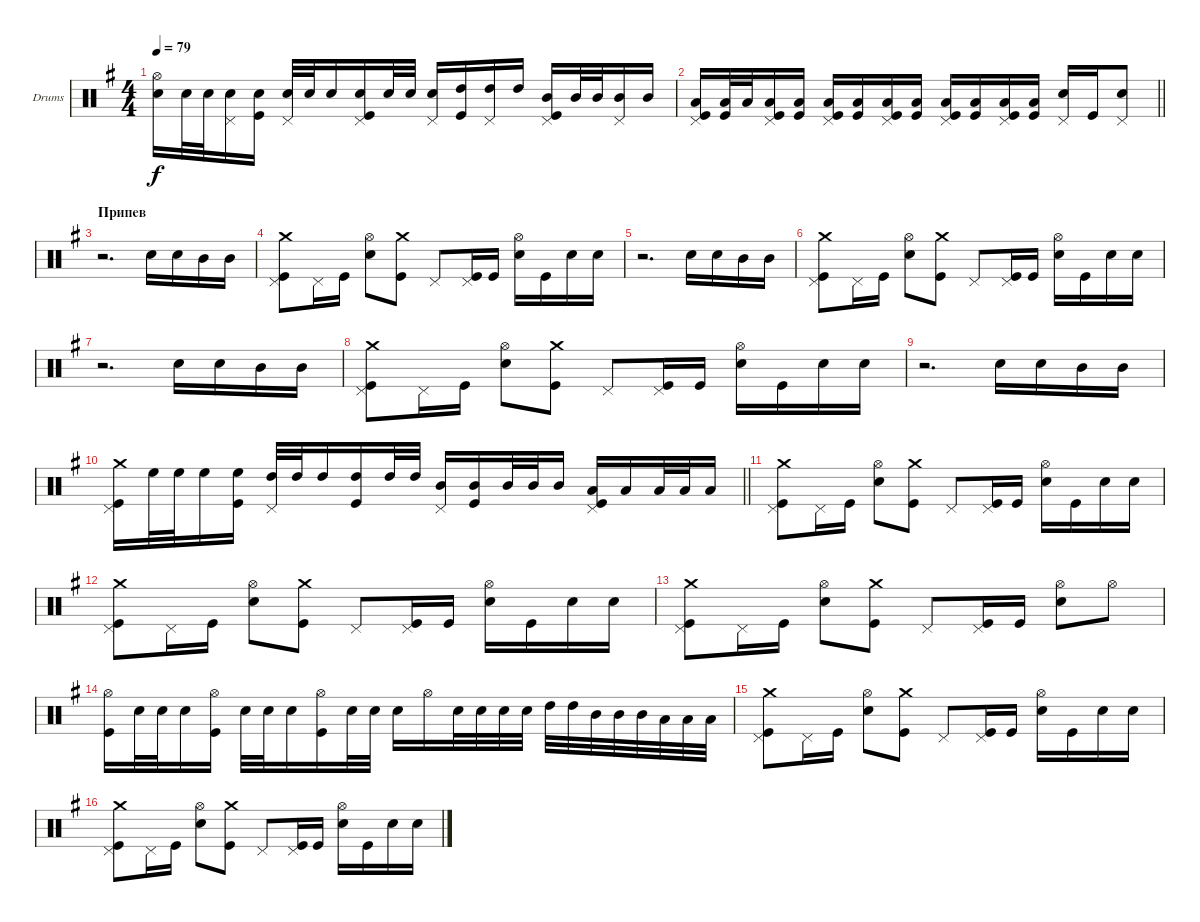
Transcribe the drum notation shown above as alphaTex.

\bracketExtendMode groupsimilarinstruments
\firstSystemTrackNameOrientation horizontal
\otherSystemsTrackNameOrientation horizontal
\track ("Александр Манякин" "Drums") {instrument percussion}
\staff {score}
\articulation defaults
\ts (4 4)
\tempo 79
\clef neutral
\ks eminor
("Snare (hit) 2" "Hi-Hat (open)").16{dy f} "Snare (hit) 2".32 "Snare (hit) 2".32 ("Snare (hit) 2" "Pedal Hi-Hat (hit)").16 ("Snare (hit) 2" "Kick (hit)").16 ("Snare (hit) 2" "Pedal Hi-Hat (hit)").32 "Snare (hit) 2".32 "Snare (hit) 2".16 ("Snare (hit) 2" "Kick (hit)" "Pedal Hi-Hat (hit)").16 "Snare (hit) 2".32 "Snare (hit) 2".32 ("Snare (hit) 2" "Pedal Hi-Hat (hit)").16 ("High Tom (hit)" "Kick (hit)").16 ("Pedal Hi-Hat (hit)" "High Tom (hit)").16 "High Tom (hit)".16 ("Kick (hit)" "Pedal Hi-Hat (hit)" "Mid Tom (hit)").16 "Mid Tom (hit)".32 "Mid Tom (hit)".32 ("Mid Tom (hit)" "Pedal Hi-Hat (hit)").16 "Mid Tom (hit)".16 |
\barLineRight lightlight
("Kick (hit)" "Low Tom (hit)" "Pedal Hi-Hat (hit)").16 ("Kick (hit)" "Low Tom (hit)").32 "Low Tom (hit)".32 ("Low Tom (hit)" "Pedal Hi-Hat (hit)" "Kick (hit)").16 ("Kick (hit)" "Low Tom (hit)").16 ("Low Tom (hit)" "Kick (hit)" "Pedal Hi-Hat (hit)").16 ("Low Tom (hit)" "Kick (hit)").16 ("Low Tom (hit)" "Kick (hit)" "Pedal Hi-Hat (hit)").16 ("Low Tom (hit)" "Kick (hit)").16 ("Low Tom (hit)" "Kick (hit)" "Pedal Hi-Hat (hit)").16 ("Low Tom (hit)" "Kick (hit)").16 ("Low Tom (hit)" "Kick (hit)" "Pedal Hi-Hat (hit)").16 ("Low Tom (hit)" "Kick (hit)").16 ("Snare (hit) 2" "Pedal Hi-Hat (hit)").16 "Kick (hit)".16 ("Snare (hit) 2" "Pedal Hi-Hat (hit)").8 |
\section ("" "Припев")
r.2{d} "Snare (hit) 2".16 "Snare (hit) 2".16 "Mid Tom (hit)".16 "Mid Tom (hit)".16 |
("Kick (hit)" "Crash medium (hit)" "Pedal Hi-Hat (hit)").8 "Pedal Hi-Hat (hit)".16 "Kick (hit)".16 ("Snare (hit) 2" "Hi-Hat (open)").8 ("Kick (hit)" "Crash medium (hit)").8 "Pedal Hi-Hat (hit)".8 ("Kick (hit)" "Pedal Hi-Hat (hit)").16 "Kick (hit)".16 ("Snare (hit) 2" "Hi-Hat (open)").16 "Kick (hit)".16 "Snare (hit) 2".16 "Snare (hit) 2".16 |
r.2{d} "Snare (hit) 2".16 "Snare (hit) 2".16 "Mid Tom (hit)".16 "Mid Tom (hit)".16 |
("Kick (hit)" "Crash medium (hit)" "Pedal Hi-Hat (hit)").8 "Pedal Hi-Hat (hit)".16 "Kick (hit)".16 ("Snare (hit) 2" "Hi-Hat (open)").8 ("Kick (hit)" "Crash medium (hit)").8 "Pedal Hi-Hat (hit)".8 ("Kick (hit)" "Pedal Hi-Hat (hit)").16 "Kick (hit)".16 ("Snare (hit) 2" "Hi-Hat (open)").16 "Kick (hit)".16 "Snare (hit) 2".16 "Snare (hit) 2".16 |
r.2{d} "Snare (hit) 2".16 "Snare (hit) 2".16 "Mid Tom (hit)".16 "Mid Tom (hit)".16 |
("Kick (hit)" "Crash medium (hit)" "Pedal Hi-Hat (hit)").8 "Pedal Hi-Hat (hit)".16 "Kick (hit)".16 ("Snare (hit) 2" "Hi-Hat (open)").8 ("Kick (hit)" "Crash medium (hit)").8 "Pedal Hi-Hat (hit)".8 ("Kick (hit)" "Pedal Hi-Hat (hit)").16 "Kick (hit)".16 ("Snare (hit) 2" "Hi-Hat (open)").16 "Kick (hit)".16 "Snare (hit) 2".16 "Snare (hit) 2".16 |
r.2{d} "Snare (hit) 2".16 "Snare (hit) 2".16 "Mid Tom (hit)".16 "Mid Tom (hit)".16 |
\barLineRight lightlight
("Kick (hit)" "Crash medium (hit)" "Pedal Hi-Hat (hit)").16 "High Floor Tom (hit)".32 "High Floor Tom (hit)".32 "High Floor Tom (hit)".16 ("Kick (hit)" "High Floor Tom (hit)").16 ("Pedal Hi-Hat (hit)" "High Tom (hit)").32 "High Tom (hit)".32 "High Tom (hit)".16 ("High Tom (hit)" "Kick (hit)").16 "High Tom (hit)".32 "High Tom (hit)".32 ("Pedal Hi-Hat (hit)" "Mid Tom (hit)").16 ("Kick (hit)" "Mid Tom (hit)").16 "Mid Tom (hit)".32 "Mid Tom (hit)".32 "Mid Tom (hit)".16 ("Low Tom (hit)" "Kick (hit)" "Pedal Hi-Hat (hit)").16 "Low Tom (hit)".16 "Low Tom (hit)".32 "Low Tom (hit)".32 "Low Tom (hit)".16 |
("Kick (hit)" "Crash medium (hit)" "Pedal Hi-Hat (hit)").8 "Pedal Hi-Hat (hit)".16 "Kick (hit)".16 ("Snare (hit) 2" "Hi-Hat (open)").8 ("Kick (hit)" "Crash medium (hit)").8 "Pedal Hi-Hat (hit)".8 ("Kick (hit)" "Pedal Hi-Hat (hit)").16 "Kick (hit)".16 ("Snare (hit) 2" "Hi-Hat (open)").16 "Kick (hit)".16 "Snare (hit) 2".16 "Snare (hit) 2".16 |
("Kick (hit)" "Crash medium (hit)" "Pedal Hi-Hat (hit)").8 "Pedal Hi-Hat (hit)".16 "Kick (hit)".16 ("Snare (hit) 2" "Hi-Hat (open)").8 ("Kick (hit)" "Crash medium (hit)").8 "Pedal Hi-Hat (hit)".8 ("Kick (hit)" "Pedal Hi-Hat (hit)").16 "Kick (hit)".16 ("Snare (hit) 2" "Hi-Hat (open)").16 "Kick (hit)".16 "Snare (hit) 2".16 "Snare (hit) 2".16 |
("Kick (hit)" "Crash medium (hit)" "Pedal Hi-Hat (hit)").8 "Pedal Hi-Hat (hit)".16 "Kick (hit)".16 ("Snare (hit) 2" "Hi-Hat (open)").8 ("Kick (hit)" "Crash medium (hit)").8 "Pedal Hi-Hat (hit)".8 ("Kick (hit)" "Pedal Hi-Hat (hit)").16 "Kick (hit)".16 ("Hi-Hat (open)" "Snare (hit) 2").8 "Hi-Hat (open)".8 |
("Kick (hit)" "Hi-Hat (open)").16 "Snare (hit) 2".32 "Snare (hit) 2".32 "Snare (hit) 2".16 ("Kick (hit)" "Hi-Hat (open)").16 "Snare (hit) 2".32 "Snare (hit) 2".32 "Snare (hit) 2".16 ("Kick (hit)" "Hi-Hat (open)").16 "Snare (hit) 2".32 "Snare (hit) 2".32 "Snare (hit) 2".16 "Hi-Hat (open)".16 "Snare (hit) 2".32 "Snare (hit) 2".32 "Snare (hit) 2".32 "Snare (hit) 2".32 "High Tom (hit)".32 "High Tom (hit)".32 "Mid Tom (hit)".32 "Mid Tom (hit)".32 "Mid Tom (hit)".32 "Low Tom (hit)".32 "Low Tom (hit)".32 "Low Tom (hit)".32 |
("Kick (hit)" "Crash medium (hit)" "Pedal Hi-Hat (hit)").8 "Pedal Hi-Hat (hit)".16 "Kick (hit)".16 ("Snare (hit) 2" "Hi-Hat (open)").8 ("Kick (hit)" "Crash medium (hit)").8 "Pedal Hi-Hat (hit)".8 ("Pedal Hi-Hat (hit)" "Kick (hit)").16 "Kick (hit)".16 ("Snare (hit) 2" "Hi-Hat (open)").16 "Kick (hit)".16 "Snare (hit) 2".16 "Snare (hit) 2".16 |
("Kick (hit)" "Crash medium (hit)" "Pedal Hi-Hat (hit)").8 "Pedal Hi-Hat (hit)".16 "Kick (hit)".16 ("Snare (hit) 2" "Hi-Hat (open)").8 ("Kick (hit)" "Crash medium (hit)").8 "Pedal Hi-Hat (hit)".8 ("Kick (hit)" "Pedal Hi-Hat (hit)").16 "Kick (hit)".16 ("Snare (hit) 2" "Hi-Hat (open)").16 "Kick (hit)".16 "Snare (hit) 2".16 "Snare (hit) 2".16
